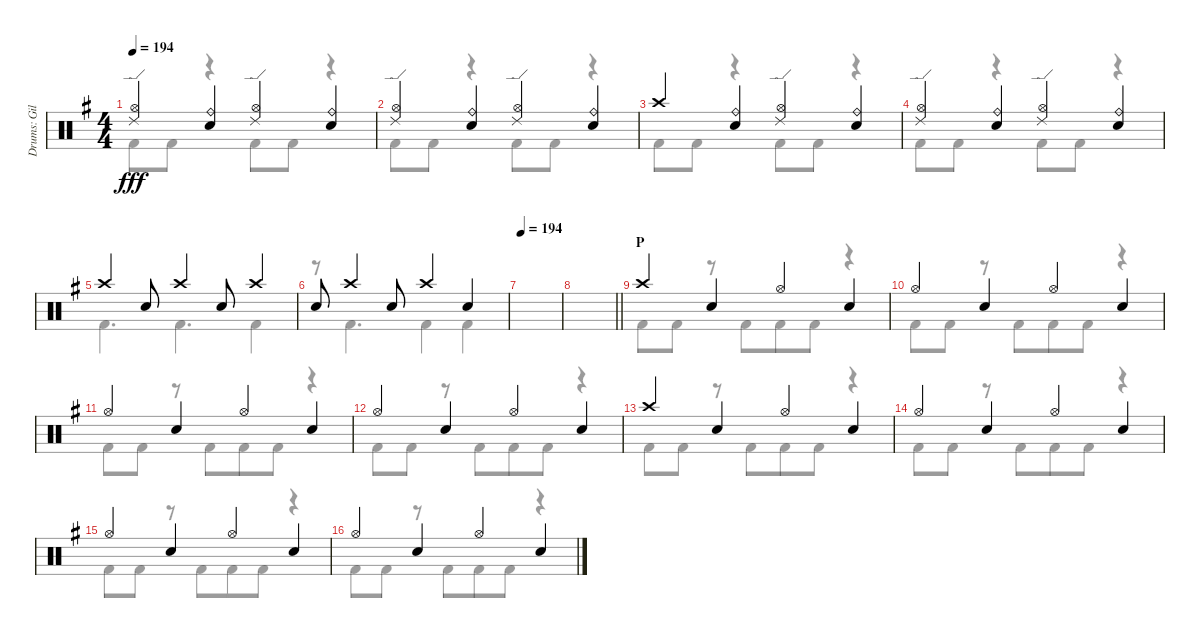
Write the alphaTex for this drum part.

\track ("Drums: Gil" "Drums: Gil") {instrument percussion}
\staff {score}
\articulation defaults
\voice
\ts (4 4)
\tempo 194
\clef neutral
\ks g
("Ride (edge) 2" "Hi-Hat (open)").4{dy fff} ("Ride (bell)" "Snare (hit) 2").4 ("Ride (edge) 2" "Hi-Hat (open)").4 ("Ride (bell)" "Snare (hit) 2").4 |
("Ride (edge) 2" "Hi-Hat (open)").4 ("Ride (bell)" "Snare (hit) 2").4 ("Ride (edge) 2" "Hi-Hat (open)").4 ("Ride (bell)" "Snare (hit) 2").4 |
"Crash high (hit)".4 ("Ride (bell)" "Snare (hit) 2").4 ("Ride (edge) 2" "Hi-Hat (open)").4 ("Ride (bell)" "Snare (hit) 2").4 |
("Ride (edge) 2" "Hi-Hat (open)").4 ("Ride (bell)" "Snare (hit) 2").4 ("Ride (edge) 2" "Hi-Hat (open)").4 ("Ride (bell)" "Snare (hit) 2").4 |
"Crash high (hit)".4 "Snare (hit) 2".8 "Crash high (hit)".4 "Snare (hit) 2".8 "Crash high (hit)".4 |
"Snare (hit) 2".8 "Crash high (hit)".4 "Snare (hit) 2".8 "Crash high (hit)".4 "Snare (hit) 2".4 |
\tempo 194
|
\barLineRight lightlight
|
\section ("" "P")
"Crash high (hit)".4 "Snare (hit) 2".4 "Hi-Hat (open)".4 "Snare (hit) 2".4 |
"Hi-Hat (open)".4 "Snare (hit) 2".4 "Hi-Hat (open)".4 "Snare (hit) 2".4 |
"Hi-Hat (open)".4 "Snare (hit) 2".4 "Hi-Hat (open)".4 "Snare (hit) 2".4 |
"Hi-Hat (open)".4 "Snare (hit) 2".4 "Hi-Hat (open)".4 "Snare (hit) 2".4 |
"Crash high (hit)".4 "Snare (hit) 2".4 "Hi-Hat (open)".4 "Snare (hit) 2".4 |
"Hi-Hat (open)".4 "Snare (hit) 2".4 "Hi-Hat (open)".4 "Snare (hit) 2".4 |
"Hi-Hat (open)".4 "Snare (hit) 2".4 "Hi-Hat (open)".4 "Snare (hit) 2".4 |
"Hi-Hat (open)".4 "Snare (hit) 2".4 "Hi-Hat (open)".4 "Snare (hit) 2".4
\voice
\clef neutral
\ottava regular
\simile none
\ks g "Kick (hit) 2".8{dy fff} "Kick (hit) 2".8
r.4 "Kick (hit) 2".8 "Kick (hit) 2".8 r.4 |
"Kick (hit) 2".8 "Kick (hit) 2".8 r.4 "Kick (hit) 2".8 "Kick (hit) 2".8 r.4 |
"Kick (hit) 2".8 "Kick (hit) 2".8 r.4 "Kick (hit) 2".8 "Kick (hit) 2".8 r.4 |
"Kick (hit) 2".8 "Kick (hit) 2".8 r.4 "Kick (hit) 2".8 "Kick (hit) 2".8 r.4 |
"Kick (hit) 2".4{d} "Kick (hit) 2".4{d} "Kick (hit) 2".4 |
r.8 "Kick (hit) 2".4{d} "Kick (hit) 2".4 "Kick (hit) 2".4 |
|
\barLineRight lightlight
|
"Kick (hit) 2".8 "Kick (hit) 2".8 r.8 "Kick (hit) 2".8{beam merge} "Kick (hit) 2".8 "Kick (hit) 2".8 r.4 |
"Kick (hit) 2".8 "Kick (hit) 2".8 r.8 "Kick (hit) 2".8{beam merge} "Kick (hit) 2".8 "Kick (hit) 2".8 r.4 |
"Kick (hit) 2".8 "Kick (hit) 2".8 r.8 "Kick (hit) 2".8{beam merge} "Kick (hit) 2".8 "Kick (hit) 2".8 r.4 |
"Kick (hit) 2".8 "Kick (hit) 2".8 r.8 "Kick (hit) 2".8{beam merge} "Kick (hit) 2".8 "Kick (hit) 2".8 r.4 |
"Kick (hit) 2".8 "Kick (hit) 2".8 r.8 "Kick (hit) 2".8{beam merge} "Kick (hit) 2".8 "Kick (hit) 2".8 r.4 |
"Kick (hit) 2".8 "Kick (hit) 2".8 r.8 "Kick (hit) 2".8{beam merge} "Kick (hit) 2".8 "Kick (hit) 2".8 r.4 |
"Kick (hit) 2".8 "Kick (hit) 2".8 r.8 "Kick (hit) 2".8{beam merge} "Kick (hit) 2".8 "Kick (hit) 2".8 r.4 |
"Kick (hit) 2".8 "Kick (hit) 2".8 r.8 "Kick (hit) 2".8{beam merge} "Kick (hit) 2".8 "Kick (hit) 2".8 r.4
